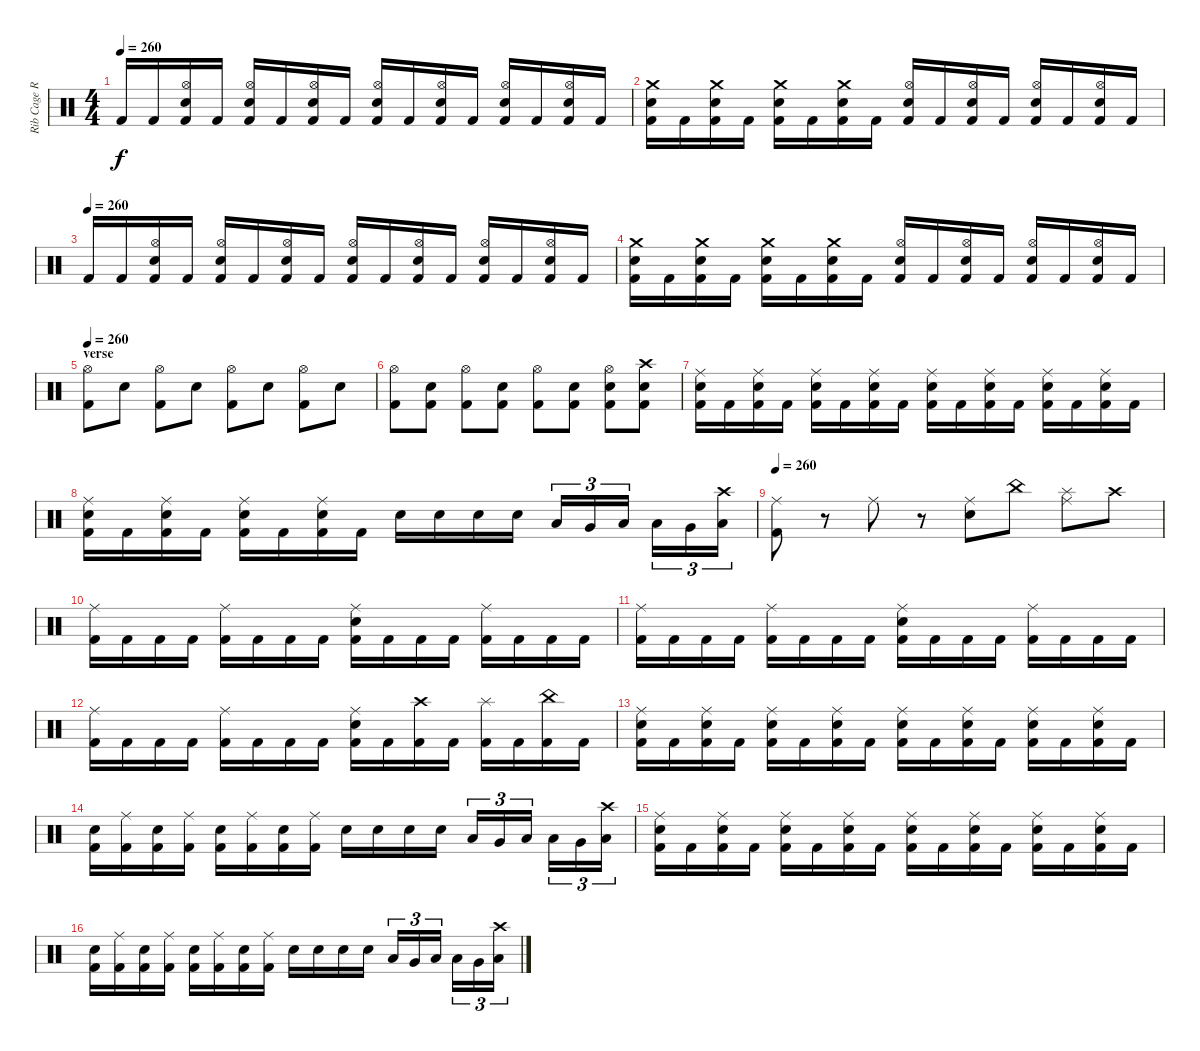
\track ("Rib Cage Rupturing God Stomping Cremator" "Rib Cage R") {instrument percussion}
\staff {score}
\articulation defaults
\ts (4 4)
\tempo 260
\clef neutral
\ks c "Kick (hit) 2".16{dy f} "Kick (hit) 2".16
("Hi-Hat (open)" "Electric Snare (hit)" "Kick (hit) 2").16 "Kick (hit) 2".16 ("Hi-Hat (open)" "Electric Snare (hit)" "Kick (hit) 2").16 "Kick (hit) 2".16 ("Hi-Hat (open)" "Electric Snare (hit)" "Kick (hit) 2").16 "Kick (hit) 2".16 ("Hi-Hat (open)" "Electric Snare (hit)" "Kick (hit) 2").16 "Kick (hit) 2".16 ("Hi-Hat (open)" "Electric Snare (hit)" "Kick (hit) 2").16 "Kick (hit) 2".16 ("Hi-Hat (open)" "Electric Snare (hit)" "Kick (hit) 2").16 "Kick (hit) 2".16 ("Hi-Hat (open)" "Electric Snare (hit)" "Kick (hit) 2").16 "Kick (hit) 2".16 |
("Crash medium (hit)" "Electric Snare (hit)" "Kick (hit) 2").16 "Kick (hit) 2".16 ("Crash medium (hit)" "Electric Snare (hit)" "Kick (hit) 2").16 "Kick (hit) 2".16 ("Crash medium (hit)" "Electric Snare (hit)" "Kick (hit) 2").16 "Kick (hit) 2".16 ("Crash medium (hit)" "Electric Snare (hit)" "Kick (hit) 2").16 "Kick (hit) 2".16 ("Hi-Hat (open)" "Electric Snare (hit)" "Kick (hit) 2").16 "Kick (hit) 2".16 ("Hi-Hat (open)" "Electric Snare (hit)" "Kick (hit) 2").16 "Kick (hit) 2".16 ("Hi-Hat (open)" "Electric Snare (hit)" "Kick (hit) 2").16 "Kick (hit) 2".16 ("Hi-Hat (open)" "Electric Snare (hit)" "Kick (hit) 2").16 "Kick (hit) 2".16 |
\tempo (260)
"Kick (hit) 2".16 "Kick (hit) 2".16 ("Hi-Hat (open)" "Electric Snare (hit)" "Kick (hit) 2").16 "Kick (hit) 2".16 ("Hi-Hat (open)" "Electric Snare (hit)" "Kick (hit) 2").16 "Kick (hit) 2".16 ("Hi-Hat (open)" "Electric Snare (hit)" "Kick (hit) 2").16 "Kick (hit) 2".16 ("Hi-Hat (open)" "Electric Snare (hit)" "Kick (hit) 2").16 "Kick (hit) 2".16 ("Hi-Hat (open)" "Electric Snare (hit)" "Kick (hit) 2").16 "Kick (hit) 2".16 ("Hi-Hat (open)" "Electric Snare (hit)" "Kick (hit) 2").16 "Kick (hit) 2".16 ("Hi-Hat (open)" "Electric Snare (hit)" "Kick (hit) 2").16 "Kick (hit) 2".16 |
("Crash medium (hit)" "Electric Snare (hit)" "Kick (hit) 2").16 "Kick (hit) 2".16 ("Crash medium (hit)" "Electric Snare (hit)" "Kick (hit) 2").16 "Kick (hit) 2".16 ("Crash medium (hit)" "Electric Snare (hit)" "Kick (hit) 2").16 "Kick (hit) 2".16 ("Crash medium (hit)" "Electric Snare (hit)" "Kick (hit) 2").16 "Kick (hit) 2".16 ("Hi-Hat (open)" "Electric Snare (hit)" "Kick (hit) 2").16 "Kick (hit) 2".16 ("Hi-Hat (open)" "Electric Snare (hit)" "Kick (hit) 2").16 "Kick (hit) 2".16 ("Hi-Hat (open)" "Electric Snare (hit)" "Kick (hit) 2").16 "Kick (hit) 2".16 ("Hi-Hat (open)" "Electric Snare (hit)" "Kick (hit) 2").16 "Kick (hit) 2".16 |
\section ("" "verse")
\tempo 260
("Hi-Hat (open)" "Kick (hit) 2").8 "Electric Snare (hit)".8 ("Hi-Hat (open)" "Kick (hit) 2").8 "Electric Snare (hit)".8 ("Hi-Hat (open)" "Kick (hit) 2").8 "Electric Snare (hit)".8 ("Hi-Hat (open)" "Kick (hit) 2").8 "Electric Snare (hit)".8 |
("Hi-Hat (open)" "Kick (hit) 2").8 ("Electric Snare (hit)" "Kick (hit) 2").8 ("Hi-Hat (open)" "Kick (hit) 2").8 ("Electric Snare (hit)" "Kick (hit) 2").8 ("Hi-Hat (open)" "Kick (hit) 2").8 ("Electric Snare (hit)" "Kick (hit) 2").8 ("Hi-Hat (open)" "Electric Snare (hit)" "Kick (hit) 2").8 ("Crash high (hit)" "Electric Snare (hit)" "Kick (hit) 2").8 |
("Ride (middle)" "Electric Snare (hit)" "Kick (hit) 2").16 "Kick (hit) 2".16 ("Ride (middle)" "Electric Snare (hit)" "Kick (hit) 2").16 "Kick (hit) 2".16 ("Ride (middle)" "Electric Snare (hit)" "Kick (hit) 2").16 "Kick (hit) 2".16 ("Ride (middle)" "Electric Snare (hit)" "Kick (hit) 2").16 "Kick (hit) 2".16 ("Ride (middle)" "Electric Snare (hit)" "Kick (hit) 2").16 "Kick (hit) 2".16 ("Ride (middle)" "Electric Snare (hit)" "Kick (hit) 2").16 "Kick (hit) 2".16 ("Ride (middle)" "Electric Snare (hit)" "Kick (hit) 2").16 "Kick (hit) 2".16 ("Ride (middle)" "Electric Snare (hit)" "Kick (hit) 2").16 "Kick (hit) 2".16 |
("Ride (middle)" "Electric Snare (hit)" "Kick (hit) 2").16 "Kick (hit) 2".16 ("Ride (middle)" "Electric Snare (hit)" "Kick (hit) 2").16 "Kick (hit) 2".16 ("Ride (middle)" "Electric Snare (hit)" "Kick (hit) 2").16 "Kick (hit) 2".16 ("Ride (middle)" "Electric Snare (hit)" "Kick (hit) 2").16 "Kick (hit) 2".16 "Electric Snare (hit)".16 "Electric Snare (hit)".16 "Electric Snare (hit)".16 "Electric Snare (hit)".16 "Low Tom (hit)".16{tu (3 2)} "Very Low Tom (hit)".16{tu (3 2)} "Low Floor Tom (hit)".16{tu (3 2)} "Low Tom (hit)".16{tu (3 2)} "Very Low Tom (hit)".16{tu (3 2)} ("Crash high (hit)" "Low Floor Tom (hit)").16{tu (3 2)} |
\tempo 260
("Ride (middle)" "Kick (hit) 2").8 r.8 "Ride (middle)".8 r.8 ("Ride (middle)" "Electric Snare (hit)").8 "China (hit)".8 ("Splash (hit)" "Ride (middle)").8 "Crash high (hit)".8 |
("Ride (middle)" "Kick (hit) 2").16 "Kick (hit) 2".16 "Kick (hit) 2".16 "Kick (hit) 2".16 ("Ride (middle)" "Kick (hit) 2").16 "Kick (hit) 2".16 "Kick (hit) 2".16 "Kick (hit) 2".16 ("Ride (middle)" "Electric Snare (hit)" "Kick (hit) 2").16 "Kick (hit) 2".16 "Kick (hit) 2".16 "Kick (hit) 2".16 ("Ride (middle)" "Kick (hit) 2").16 "Kick (hit) 2".16 "Kick (hit) 2".16 "Kick (hit) 2".16 |
("Ride (middle)" "Kick (hit) 2").16 "Kick (hit) 2".16 "Kick (hit) 2".16 "Kick (hit) 2".16 ("Ride (middle)" "Kick (hit) 2").16 "Kick (hit) 2".16 "Kick (hit) 2".16 "Kick (hit) 2".16 ("Ride (middle)" "Electric Snare (hit)" "Kick (hit) 2").16 "Kick (hit) 2".16 "Kick (hit) 2".16 "Kick (hit) 2".16 ("Ride (middle)" "Kick (hit) 2").16 "Kick (hit) 2".16 "Kick (hit) 2".16 "Kick (hit) 2".16 |
("Ride (middle)" "Kick (hit) 2").16 "Kick (hit) 2".16 "Kick (hit) 2".16 "Kick (hit) 2".16 ("Ride (middle)" "Kick (hit) 2").16 "Kick (hit) 2".16 "Kick (hit) 2".16 "Kick (hit) 2".16 ("Ride (middle)" "Electric Snare (hit)" "Kick (hit) 2").16 "Kick (hit) 2".16 ("Crash high (hit)" "Kick (hit) 2").16 "Kick (hit) 2".16 ("Splash (hit)" "Kick (hit) 2").16 "Kick (hit) 2".16 ("China (hit)" "Kick (hit) 2").16 "Kick (hit) 2".16 |
("Ride (middle)" "Electric Snare (hit)" "Kick (hit) 2").16 "Kick (hit) 2".16 ("Ride (middle)" "Electric Snare (hit)" "Kick (hit) 2").16 "Kick (hit) 2".16 ("Ride (middle)" "Electric Snare (hit)" "Kick (hit) 2").16 "Kick (hit) 2".16 ("Ride (middle)" "Electric Snare (hit)" "Kick (hit) 2").16 "Kick (hit) 2".16 ("Ride (middle)" "Electric Snare (hit)" "Kick (hit) 2").16 "Kick (hit) 2".16 ("Ride (middle)" "Electric Snare (hit)" "Kick (hit) 2").16 "Kick (hit) 2".16 ("Ride (middle)" "Electric Snare (hit)" "Kick (hit) 2").16 "Kick (hit) 2".16 ("Ride (middle)" "Electric Snare (hit)" "Kick (hit) 2").16 "Kick (hit) 2".16 |
("Electric Snare (hit)" "Kick (hit) 2").16 ("Ride (middle)" "Kick (hit) 2").16 ("Electric Snare (hit)" "Kick (hit) 2").16 ("Ride (middle)" "Kick (hit) 2").16 ("Electric Snare (hit)" "Kick (hit) 2").16 ("Ride (middle)" "Kick (hit) 2").16 ("Electric Snare (hit)" "Kick (hit) 2").16 ("Ride (middle)" "Kick (hit) 2").16 "Electric Snare (hit)".16 "Electric Snare (hit)".16 "Electric Snare (hit)".16 "Electric Snare (hit)".16 "Low Tom (hit)".16{tu (3 2)} "Very Low Tom (hit)".16{tu (3 2)} "Low Floor Tom (hit)".16{tu (3 2)} "Low Tom (hit)".16{tu (3 2)} "Very Low Tom (hit)".16{tu (3 2)} ("Crash high (hit)" "Low Floor Tom (hit)").16{tu (3 2)} |
("Ride (middle)" "Electric Snare (hit)" "Kick (hit) 2").16 "Kick (hit) 2".16 ("Ride (middle)" "Electric Snare (hit)" "Kick (hit) 2").16 "Kick (hit) 2".16 ("Ride (middle)" "Electric Snare (hit)" "Kick (hit) 2").16 "Kick (hit) 2".16 ("Ride (middle)" "Electric Snare (hit)" "Kick (hit) 2").16 "Kick (hit) 2".16 ("Ride (middle)" "Electric Snare (hit)" "Kick (hit) 2").16 "Kick (hit) 2".16 ("Ride (middle)" "Electric Snare (hit)" "Kick (hit) 2").16 "Kick (hit) 2".16 ("Ride (middle)" "Electric Snare (hit)" "Kick (hit) 2").16 "Kick (hit) 2".16 ("Ride (middle)" "Electric Snare (hit)" "Kick (hit) 2").16 "Kick (hit) 2".16 |
("Electric Snare (hit)" "Kick (hit) 2").16 ("Ride (middle)" "Kick (hit) 2").16 ("Electric Snare (hit)" "Kick (hit) 2").16 ("Ride (middle)" "Kick (hit) 2").16 ("Electric Snare (hit)" "Kick (hit) 2").16 ("Ride (middle)" "Kick (hit) 2").16 ("Electric Snare (hit)" "Kick (hit) 2").16 ("Ride (middle)" "Kick (hit) 2").16 "Electric Snare (hit)".16 "Electric Snare (hit)".16 "Electric Snare (hit)".16 "Electric Snare (hit)".16 "Low Tom (hit)".16{tu (3 2)} "Very Low Tom (hit)".16{tu (3 2)} "Low Floor Tom (hit)".16{tu (3 2)} "Low Tom (hit)".16{tu (3 2)} "Very Low Tom (hit)".16{tu (3 2)} ("Crash high (hit)" "Low Floor Tom (hit)").16{tu (3 2)}
